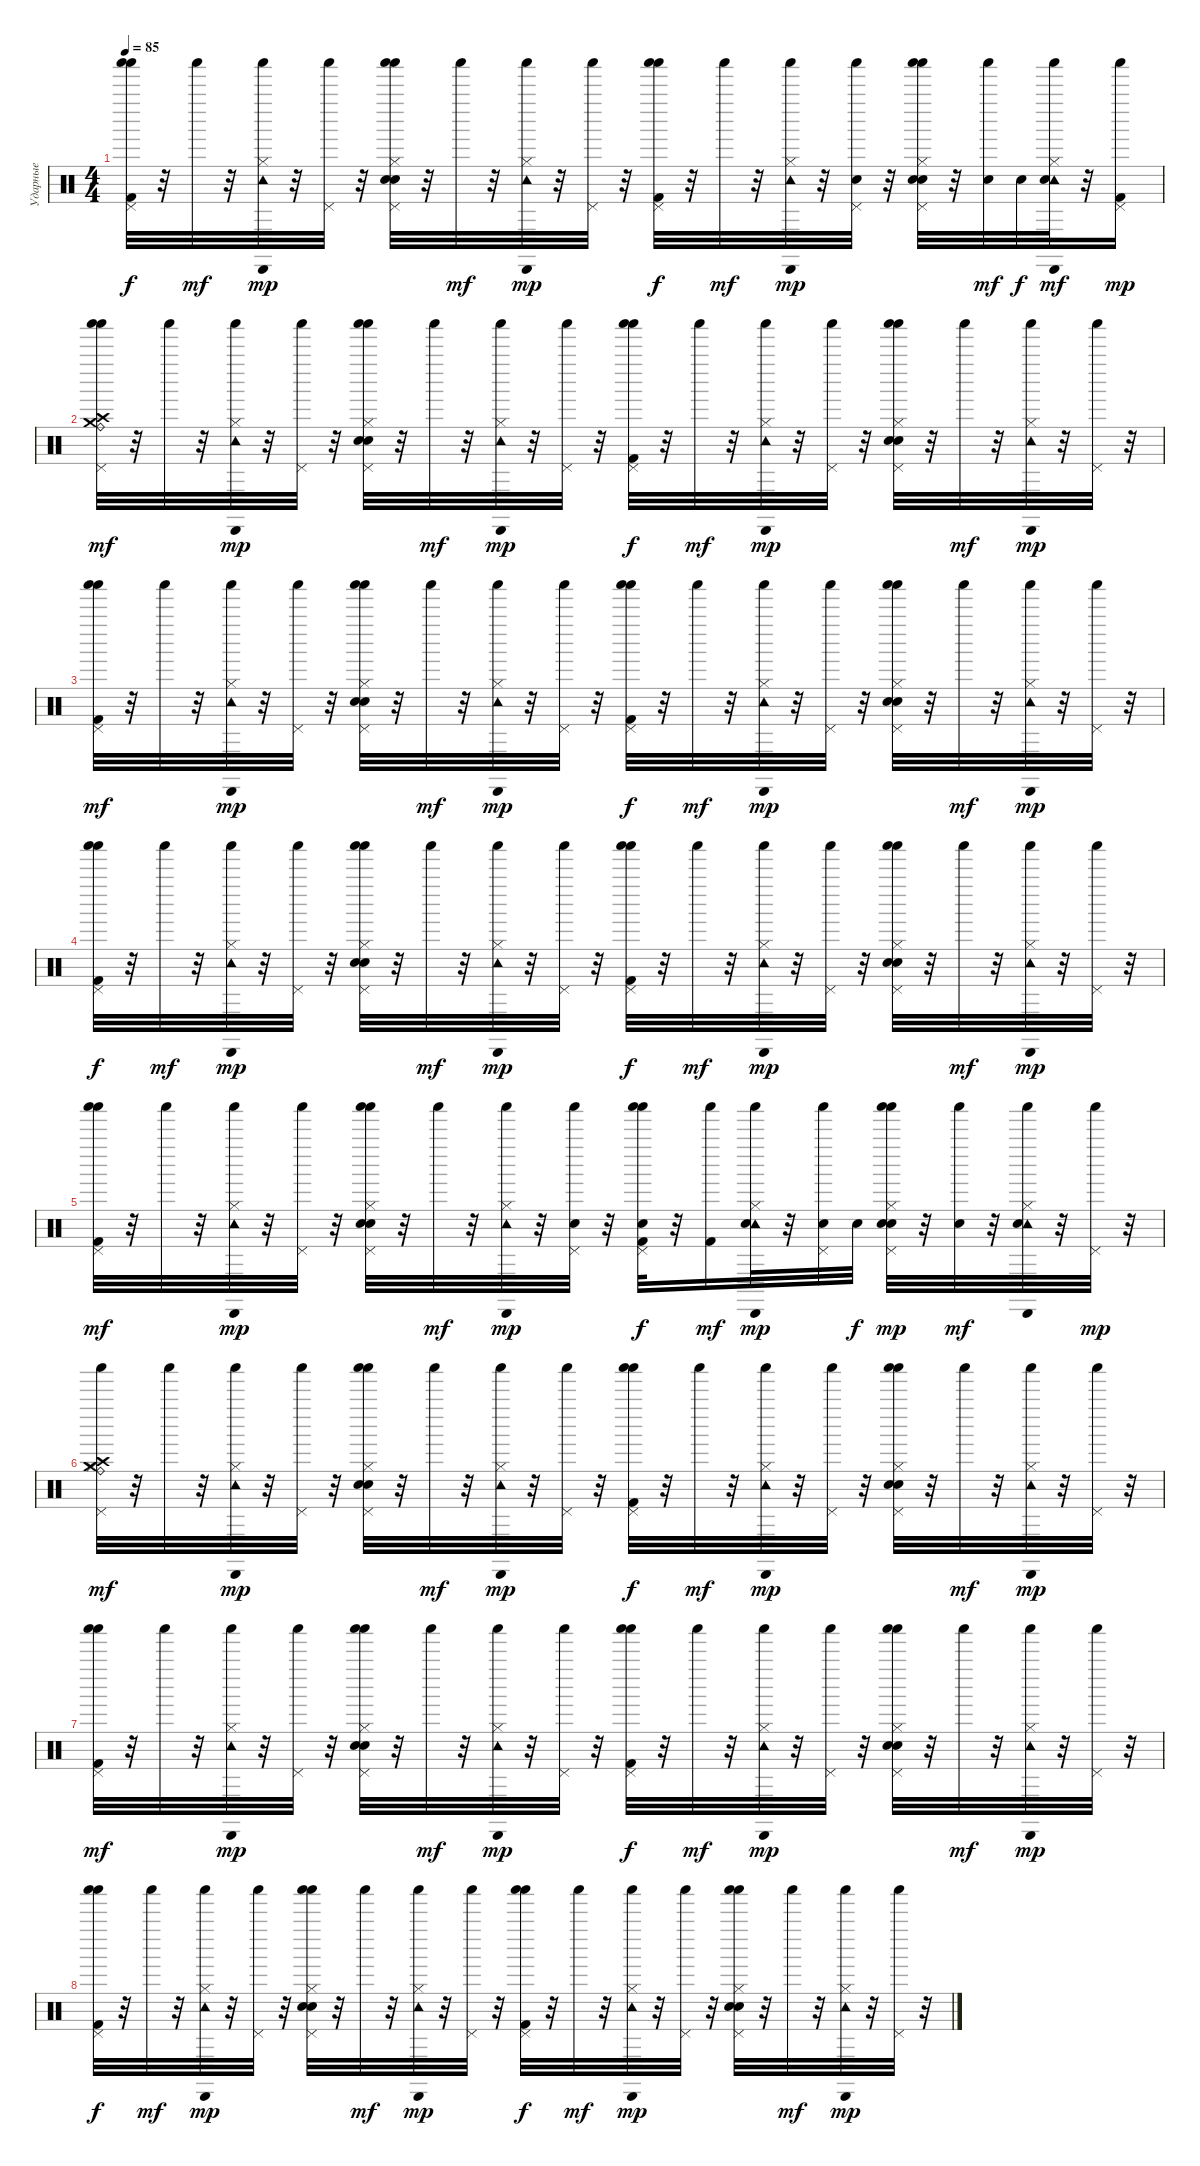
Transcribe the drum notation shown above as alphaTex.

\track ("Ударные" "Ударные") {instrument percussion}
\staff {score}
\articulation defaults
\ts (4 4)
\tempo 85
\clef neutral
\ks c
("Pedal Hi-Hat (hit)" "Shaker (hit)" "Shaker (hit)" "Kick (hit) 2").32{dy f} r.32 "Shaker (hit)".32{dy mf} r.32 ("Hi-Hat (closed)" "Cabasa (hit)" "Shaker (hit)" "Tambourine (hit)").32{dy mp} r.32 ("Pedal Hi-Hat (hit)" "Shaker (hit)").32 r.32 ("Hi-Hat (closed)" "Pedal Hi-Hat (hit)" "Shaker (hit)" "Shaker (hit)" "Snare (hit) 2" "Electric Snare (hit)").32 r.32 "Shaker (hit)".32{dy mf} r.32 ("Hi-Hat (closed)" "Cabasa (hit)" "Shaker (hit)" "Tambourine (hit)").32{dy mp} r.32 ("Pedal Hi-Hat (hit)" "Shaker (hit)").32 r.32 ("Pedal Hi-Hat (hit)" "Shaker (hit)" "Shaker (hit)" "Kick (hit) 2").32{dy f} r.32 "Shaker (hit)".32{dy mf} r.32 ("Hi-Hat (closed)" "Cabasa (hit)" "Shaker (hit)" "Tambourine (hit)").32{dy mp} r.32 ("Pedal Hi-Hat (hit)" "Shaker (hit)" "Snare (hit) 2").32 r.32 ("Hi-Hat (closed)" "Pedal Hi-Hat (hit)" "Shaker (hit)" "Shaker (hit)" "Snare (hit) 2" "Electric Snare (hit)").32 r.32 ("Shaker (hit)" "Snare (hit) 2").32{dy mf} "Snare (hit) 2".32{dy f} ("Hi-Hat (closed)" "Cabasa (hit)" "Shaker (hit)" "Tambourine (hit)" "Snare (hit) 2").32{dy mf} r.32 ("Pedal Hi-Hat (hit)" "Shaker (hit)" "Kick (hit) 2").16{dy mp} |
("Ride (bell)" "Crash high (hit)" "Crash medium (hit)" "Pedal Hi-Hat (hit)" "Shaker (hit)" "Shaker (hit)").32{dy mf} r.32 "Shaker (hit)".32 r.32 ("Hi-Hat (closed)" "Cabasa (hit)" "Shaker (hit)" "Tambourine (hit)").32{dy mp} r.32 ("Pedal Hi-Hat (hit)" "Shaker (hit)").32 r.32 ("Hi-Hat (closed)" "Pedal Hi-Hat (hit)" "Shaker (hit)" "Shaker (hit)" "Snare (hit) 2" "Electric Snare (hit)").32 r.32 "Shaker (hit)".32{dy mf} r.32 ("Hi-Hat (closed)" "Cabasa (hit)" "Shaker (hit)" "Tambourine (hit)").32{dy mp} r.32 ("Pedal Hi-Hat (hit)" "Shaker (hit)").32 r.32 ("Pedal Hi-Hat (hit)" "Shaker (hit)" "Shaker (hit)" "Kick (hit) 2").32{dy f} r.32 "Shaker (hit)".32{dy mf} r.32 ("Hi-Hat (closed)" "Cabasa (hit)" "Shaker (hit)" "Tambourine (hit)").32{dy mp} r.32 ("Pedal Hi-Hat (hit)" "Shaker (hit)").32 r.32 ("Hi-Hat (closed)" "Pedal Hi-Hat (hit)" "Shaker (hit)" "Shaker (hit)" "Snare (hit) 2" "Electric Snare (hit)").32 r.32 "Shaker (hit)".32{dy mf} r.32 ("Hi-Hat (closed)" "Cabasa (hit)" "Shaker (hit)" "Tambourine (hit)").32{dy mp} r.32 ("Pedal Hi-Hat (hit)" "Shaker (hit)").32 r.32 |
("Pedal Hi-Hat (hit)" "Shaker (hit)" "Shaker (hit)" "Kick (hit) 2").32{dy mf} r.32 "Shaker (hit)".32 r.32 ("Hi-Hat (closed)" "Cabasa (hit)" "Shaker (hit)" "Tambourine (hit)").32{dy mp} r.32 ("Pedal Hi-Hat (hit)" "Shaker (hit)").32 r.32 ("Hi-Hat (closed)" "Pedal Hi-Hat (hit)" "Shaker (hit)" "Shaker (hit)" "Snare (hit) 2" "Electric Snare (hit)").32 r.32 "Shaker (hit)".32{dy mf} r.32 ("Hi-Hat (closed)" "Cabasa (hit)" "Shaker (hit)" "Tambourine (hit)").32{dy mp} r.32 ("Pedal Hi-Hat (hit)" "Shaker (hit)").32 r.32 ("Pedal Hi-Hat (hit)" "Shaker (hit)" "Shaker (hit)" "Kick (hit) 2").32{dy f} r.32 "Shaker (hit)".32{dy mf} r.32 ("Hi-Hat (closed)" "Cabasa (hit)" "Shaker (hit)" "Tambourine (hit)").32{dy mp} r.32 ("Pedal Hi-Hat (hit)" "Shaker (hit)").32 r.32 ("Hi-Hat (closed)" "Pedal Hi-Hat (hit)" "Shaker (hit)" "Shaker (hit)" "Snare (hit) 2" "Electric Snare (hit)").32 r.32 "Shaker (hit)".32{dy mf} r.32 ("Hi-Hat (closed)" "Cabasa (hit)" "Shaker (hit)" "Tambourine (hit)").32{dy mp} r.32 ("Pedal Hi-Hat (hit)" "Shaker (hit)").32 r.32 |
("Pedal Hi-Hat (hit)" "Shaker (hit)" "Shaker (hit)" "Kick (hit) 2").32{dy f} r.32 "Shaker (hit)".32{dy mf} r.32 ("Hi-Hat (closed)" "Cabasa (hit)" "Shaker (hit)" "Tambourine (hit)").32{dy mp} r.32 ("Pedal Hi-Hat (hit)" "Shaker (hit)").32 r.32 ("Hi-Hat (closed)" "Pedal Hi-Hat (hit)" "Shaker (hit)" "Shaker (hit)" "Snare (hit) 2" "Electric Snare (hit)").32 r.32 "Shaker (hit)".32{dy mf} r.32 ("Hi-Hat (closed)" "Cabasa (hit)" "Shaker (hit)" "Tambourine (hit)").32{dy mp} r.32 ("Pedal Hi-Hat (hit)" "Shaker (hit)").32 r.32 ("Pedal Hi-Hat (hit)" "Shaker (hit)" "Shaker (hit)" "Kick (hit) 2").32{dy f} r.32 "Shaker (hit)".32{dy mf} r.32 ("Hi-Hat (closed)" "Cabasa (hit)" "Shaker (hit)" "Tambourine (hit)").32{dy mp} r.32 ("Pedal Hi-Hat (hit)" "Shaker (hit)").32 r.32 ("Hi-Hat (closed)" "Pedal Hi-Hat (hit)" "Shaker (hit)" "Shaker (hit)" "Snare (hit) 2" "Electric Snare (hit)").32 r.32 "Shaker (hit)".32{dy mf} r.32 ("Hi-Hat (closed)" "Cabasa (hit)" "Shaker (hit)" "Tambourine (hit)").32{dy mp} r.32 ("Pedal Hi-Hat (hit)" "Shaker (hit)").32 r.32 |
("Pedal Hi-Hat (hit)" "Shaker (hit)" "Shaker (hit)" "Kick (hit) 2").32{dy mf} r.32 "Shaker (hit)".32 r.32 ("Hi-Hat (closed)" "Cabasa (hit)" "Shaker (hit)" "Tambourine (hit)").32{dy mp} r.32 ("Pedal Hi-Hat (hit)" "Shaker (hit)").32 r.32 ("Hi-Hat (closed)" "Pedal Hi-Hat (hit)" "Shaker (hit)" "Shaker (hit)" "Snare (hit) 2" "Electric Snare (hit)").32 r.32 "Shaker (hit)".32{dy mf} r.32 ("Hi-Hat (closed)" "Cabasa (hit)" "Shaker (hit)" "Tambourine (hit)").32{dy mp} r.32 ("Pedal Hi-Hat (hit)" "Shaker (hit)" "Snare (hit) 2").32 r.32 ("Pedal Hi-Hat (hit)" "Shaker (hit)" "Shaker (hit)" "Kick (hit) 2" "Snare (hit) 2").32{dy f} r.32 ("Shaker (hit)" "Kick (hit) 2").16{dy mf} ("Hi-Hat (closed)" "Cabasa (hit)" "Shaker (hit)" "Tambourine (hit)" "Snare (hit) 2").32{dy mp} r.32 ("Pedal Hi-Hat (hit)" "Shaker (hit)" "Snare (hit) 2").32 "Snare (hit) 2".32{dy f} ("Hi-Hat (closed)" "Pedal Hi-Hat (hit)" "Shaker (hit)" "Shaker (hit)" "Snare (hit) 2" "Electric Snare (hit)").32{dy mp} r.32 ("Shaker (hit)" "Snare (hit) 2").32{dy mf} r.32 ("Hi-Hat (closed)" "Cabasa (hit)" "Shaker (hit)" "Tambourine (hit)" "Snare (hit) 2").32 r.32 ("Pedal Hi-Hat (hit)" "Shaker (hit)").32{dy mp} r.32 |
("Ride (bell)" "Hi-Hat (closed)" "Crash high (hit)" "Crash medium (hit)" "Pedal Hi-Hat (hit)" "Shaker (hit)").32{dy mf} r.32 "Shaker (hit)".32 r.32 ("Hi-Hat (closed)" "Cabasa (hit)" "Shaker (hit)" "Tambourine (hit)").32{dy mp} r.32 ("Pedal Hi-Hat (hit)" "Shaker (hit)").32 r.32 ("Hi-Hat (closed)" "Pedal Hi-Hat (hit)" "Shaker (hit)" "Shaker (hit)" "Snare (hit) 2" "Electric Snare (hit)").32 r.32 "Shaker (hit)".32{dy mf} r.32 ("Hi-Hat (closed)" "Cabasa (hit)" "Shaker (hit)" "Tambourine (hit)").32{dy mp} r.32 ("Pedal Hi-Hat (hit)" "Shaker (hit)").32 r.32 ("Pedal Hi-Hat (hit)" "Shaker (hit)" "Shaker (hit)" "Kick (hit) 2").32{dy f} r.32 "Shaker (hit)".32{dy mf} r.32 ("Hi-Hat (closed)" "Cabasa (hit)" "Shaker (hit)" "Tambourine (hit)").32{dy mp} r.32 ("Pedal Hi-Hat (hit)" "Shaker (hit)").32 r.32 ("Hi-Hat (closed)" "Pedal Hi-Hat (hit)" "Shaker (hit)" "Shaker (hit)" "Snare (hit) 2" "Electric Snare (hit)").32 r.32 "Shaker (hit)".32{dy mf} r.32 ("Hi-Hat (closed)" "Cabasa (hit)" "Shaker (hit)" "Tambourine (hit)").32{dy mp} r.32 ("Pedal Hi-Hat (hit)" "Shaker (hit)").32 r.32 |
("Pedal Hi-Hat (hit)" "Shaker (hit)" "Shaker (hit)" "Kick (hit) 2").32{dy mf} r.32 "Shaker (hit)".32 r.32 ("Hi-Hat (closed)" "Cabasa (hit)" "Shaker (hit)" "Tambourine (hit)").32{dy mp} r.32 ("Pedal Hi-Hat (hit)" "Shaker (hit)").32 r.32 ("Hi-Hat (closed)" "Pedal Hi-Hat (hit)" "Shaker (hit)" "Shaker (hit)" "Snare (hit) 2" "Electric Snare (hit)").32 r.32 "Shaker (hit)".32{dy mf} r.32 ("Hi-Hat (closed)" "Cabasa (hit)" "Shaker (hit)" "Tambourine (hit)").32{dy mp} r.32 ("Pedal Hi-Hat (hit)" "Shaker (hit)").32 r.32 ("Pedal Hi-Hat (hit)" "Shaker (hit)" "Shaker (hit)" "Kick (hit) 2").32{dy f} r.32 "Shaker (hit)".32{dy mf} r.32 ("Hi-Hat (closed)" "Cabasa (hit)" "Shaker (hit)" "Tambourine (hit)").32{dy mp} r.32 ("Pedal Hi-Hat (hit)" "Shaker (hit)").32 r.32 ("Hi-Hat (closed)" "Pedal Hi-Hat (hit)" "Shaker (hit)" "Shaker (hit)" "Snare (hit) 2" "Electric Snare (hit)").32 r.32 "Shaker (hit)".32{dy mf} r.32 ("Hi-Hat (closed)" "Cabasa (hit)" "Shaker (hit)" "Tambourine (hit)").32{dy mp} r.32 ("Pedal Hi-Hat (hit)" "Shaker (hit)").32 r.32 |
("Pedal Hi-Hat (hit)" "Shaker (hit)" "Shaker (hit)" "Kick (hit) 2").32{dy f} r.32 "Shaker (hit)".32{dy mf} r.32 ("Hi-Hat (closed)" "Cabasa (hit)" "Shaker (hit)" "Tambourine (hit)").32{dy mp} r.32 ("Pedal Hi-Hat (hit)" "Shaker (hit)").32 r.32 ("Hi-Hat (closed)" "Pedal Hi-Hat (hit)" "Shaker (hit)" "Shaker (hit)" "Snare (hit) 2" "Electric Snare (hit)").32 r.32 "Shaker (hit)".32{dy mf} r.32 ("Hi-Hat (closed)" "Cabasa (hit)" "Shaker (hit)" "Tambourine (hit)").32{dy mp} r.32 ("Pedal Hi-Hat (hit)" "Shaker (hit)").32 r.32 ("Pedal Hi-Hat (hit)" "Shaker (hit)" "Shaker (hit)" "Kick (hit) 2").32{dy f} r.32 "Shaker (hit)".32{dy mf} r.32 ("Hi-Hat (closed)" "Cabasa (hit)" "Shaker (hit)" "Tambourine (hit)").32{dy mp} r.32 ("Pedal Hi-Hat (hit)" "Shaker (hit)").32 r.32 ("Hi-Hat (closed)" "Pedal Hi-Hat (hit)" "Shaker (hit)" "Shaker (hit)" "Snare (hit) 2" "Electric Snare (hit)").32 r.32 "Shaker (hit)".32{dy mf} r.32 ("Hi-Hat (closed)" "Cabasa (hit)" "Shaker (hit)" "Tambourine (hit)").32{dy mp} r.32 ("Pedal Hi-Hat (hit)" "Shaker (hit)").32 r.32
